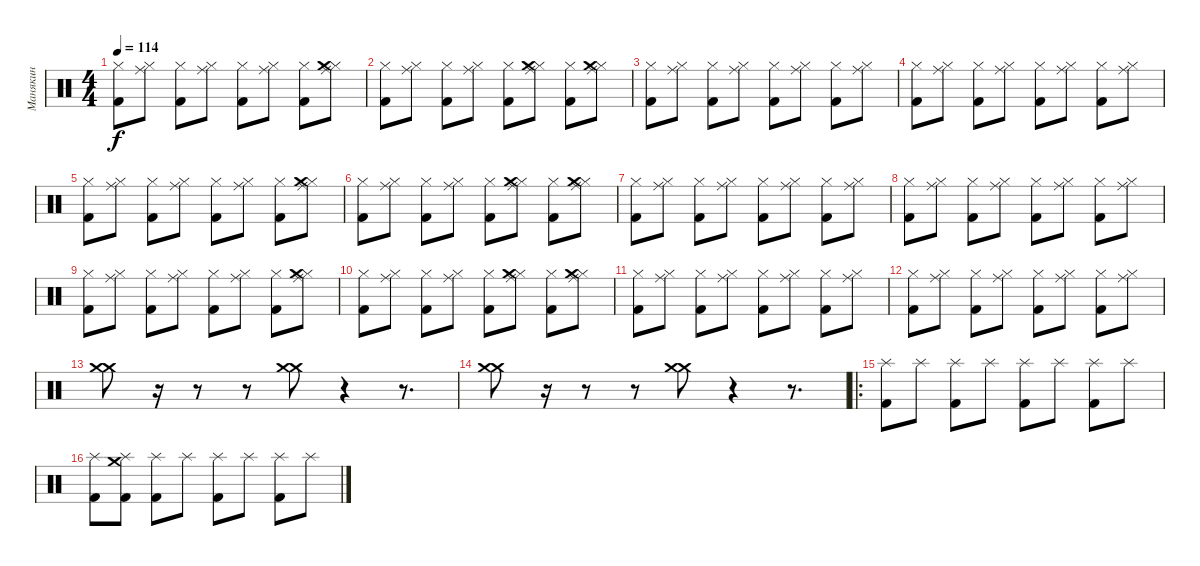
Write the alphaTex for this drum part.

\track ("Манякин" "Манякин") {instrument percussion}
\staff {score}
\articulation defaults
\ts (4 4)
\tempo 114
\clef neutral
\ks c
("Kick (hit) 2" "Hi-Hat (closed)").8{dy f} ("Hi-Hat (closed)" "Ride (middle)").8 ("Kick (hit) 2" "Hi-Hat (closed)").8 ("Hi-Hat (closed)" "Ride (middle)").8 ("Kick (hit) 2" "Hi-Hat (closed)").8 ("Hi-Hat (closed)" "Ride (middle)").8 ("Kick (hit) 2" "Hi-Hat (closed)").8 ("Hi-Hat (closed)" "Ride (middle)" "Crash medium (hit)").8 |
("Kick (hit) 2" "Hi-Hat (closed)").8 ("Hi-Hat (closed)" "Ride (middle)").8 ("Kick (hit) 2" "Hi-Hat (closed)").8 ("Hi-Hat (closed)" "Ride (middle)").8 ("Kick (hit) 2" "Hi-Hat (closed)").8 ("Hi-Hat (closed)" "Ride (middle)" "Crash medium (hit)").8 ("Kick (hit) 2" "Hi-Hat (closed)").8 ("Hi-Hat (closed)" "Ride (middle)" "Crash medium (hit)").8 |
("Kick (hit) 2" "Hi-Hat (closed)").8 ("Hi-Hat (closed)" "Ride (middle)").8 ("Kick (hit) 2" "Hi-Hat (closed)").8 ("Hi-Hat (closed)" "Ride (middle)").8 ("Kick (hit) 2" "Hi-Hat (closed)").8 ("Hi-Hat (closed)" "Ride (middle)").8 ("Kick (hit) 2" "Hi-Hat (closed)").8 ("Hi-Hat (closed)" "Ride (middle)").8 |
("Kick (hit) 2" "Hi-Hat (closed)").8 ("Hi-Hat (closed)" "Ride (middle)").8 ("Kick (hit) 2" "Hi-Hat (closed)").8 ("Hi-Hat (closed)" "Ride (middle)").8 ("Kick (hit) 2" "Hi-Hat (closed)").8 ("Hi-Hat (closed)" "Ride (middle)").8 ("Kick (hit) 2" "Hi-Hat (closed)").8 ("Hi-Hat (closed)" "Ride (middle)").8 |
("Kick (hit) 2" "Hi-Hat (closed)").8 ("Hi-Hat (closed)" "Ride (middle)").8 ("Kick (hit) 2" "Hi-Hat (closed)").8 ("Hi-Hat (closed)" "Ride (middle)").8 ("Kick (hit) 2" "Hi-Hat (closed)").8 ("Hi-Hat (closed)" "Ride (middle)").8 ("Kick (hit) 2" "Hi-Hat (closed)").8 ("Hi-Hat (closed)" "Ride (middle)" "Crash medium (hit)").8 |
("Kick (hit) 2" "Hi-Hat (closed)").8 ("Hi-Hat (closed)" "Ride (middle)").8 ("Kick (hit) 2" "Hi-Hat (closed)").8 ("Hi-Hat (closed)" "Ride (middle)").8 ("Kick (hit) 2" "Hi-Hat (closed)").8 ("Hi-Hat (closed)" "Ride (middle)" "Crash medium (hit)").8 ("Kick (hit) 2" "Hi-Hat (closed)").8 ("Hi-Hat (closed)" "Ride (middle)" "Crash medium (hit)").8 |
("Kick (hit) 2" "Hi-Hat (closed)").8 ("Hi-Hat (closed)" "Ride (middle)").8 ("Kick (hit) 2" "Hi-Hat (closed)").8 ("Hi-Hat (closed)" "Ride (middle)").8 ("Kick (hit) 2" "Hi-Hat (closed)").8 ("Hi-Hat (closed)" "Ride (middle)").8 ("Kick (hit) 2" "Hi-Hat (closed)").8 ("Hi-Hat (closed)" "Ride (middle)").8 |
("Kick (hit) 2" "Hi-Hat (closed)").8 ("Hi-Hat (closed)" "Ride (middle)").8 ("Kick (hit) 2" "Hi-Hat (closed)").8 ("Hi-Hat (closed)" "Ride (middle)").8 ("Kick (hit) 2" "Hi-Hat (closed)").8 ("Hi-Hat (closed)" "Ride (middle)").8 ("Kick (hit) 2" "Hi-Hat (closed)").8 ("Hi-Hat (closed)" "Ride (middle)").8 |
("Kick (hit) 2" "Hi-Hat (closed)").8 ("Hi-Hat (closed)" "Ride (middle)").8 ("Kick (hit) 2" "Hi-Hat (closed)").8 ("Hi-Hat (closed)" "Ride (middle)").8 ("Kick (hit) 2" "Hi-Hat (closed)").8 ("Hi-Hat (closed)" "Ride (middle)").8 ("Kick (hit) 2" "Hi-Hat (closed)").8 ("Hi-Hat (closed)" "Ride (middle)" "Crash medium (hit)").8 |
("Kick (hit) 2" "Hi-Hat (closed)").8 ("Hi-Hat (closed)" "Ride (middle)").8 ("Kick (hit) 2" "Hi-Hat (closed)").8 ("Hi-Hat (closed)" "Ride (middle)").8 ("Kick (hit) 2" "Hi-Hat (closed)").8 ("Hi-Hat (closed)" "Ride (middle)" "Crash medium (hit)").8 ("Kick (hit) 2" "Hi-Hat (closed)").8 ("Hi-Hat (closed)" "Ride (middle)" "Crash medium (hit)").8 |
("Kick (hit) 2" "Hi-Hat (closed)").8 ("Hi-Hat (closed)" "Ride (middle)").8 ("Kick (hit) 2" "Hi-Hat (closed)").8 ("Hi-Hat (closed)" "Ride (middle)").8 ("Kick (hit) 2" "Hi-Hat (closed)").8 ("Hi-Hat (closed)" "Ride (middle)").8 ("Kick (hit) 2" "Hi-Hat (closed)").8 ("Hi-Hat (closed)" "Ride (middle)").8 |
("Kick (hit) 2" "Hi-Hat (closed)").8 ("Hi-Hat (closed)" "Ride (middle)").8 ("Kick (hit) 2" "Hi-Hat (closed)").8 ("Hi-Hat (closed)" "Ride (middle)").8 ("Kick (hit) 2" "Hi-Hat (closed)").8 ("Hi-Hat (closed)" "Ride (middle)").8 ("Kick (hit) 2" "Hi-Hat (closed)").8 ("Hi-Hat (closed)" "Ride (middle)").8 |
("Crash medium (hit)" "Crash medium (hit)").8 r.16 r.8 r.8 ("Crash medium (hit)" "Crash medium (hit)").8 r.4 r.8{d} |
("Crash medium (hit)" "Crash medium (hit)").8 r.16 r.8 r.8 ("Crash medium (hit)" "Crash medium (hit)").8 r.4 r.8{d} |
\ro
("Kick (hit) 2" "Splash (hit)").8 "Splash (hit)".8 ("Kick (hit) 2" "Splash (hit)").8 "Splash (hit)".8 ("Kick (hit) 2" "Splash (hit)").8 "Splash (hit)".8 ("Kick (hit) 2" "Splash (hit)").8 "Splash (hit)".8 |
("Kick (hit) 2" "Splash (hit)").8 ("Kick (hit) 2" "Crash medium (hit)" "Splash (hit)").8 ("Kick (hit) 2" "Splash (hit)").8 "Splash (hit)".8 ("Kick (hit) 2" "Splash (hit)").8 "Splash (hit)".8 ("Kick (hit) 2" "Splash (hit)").8 "Splash (hit)".8
